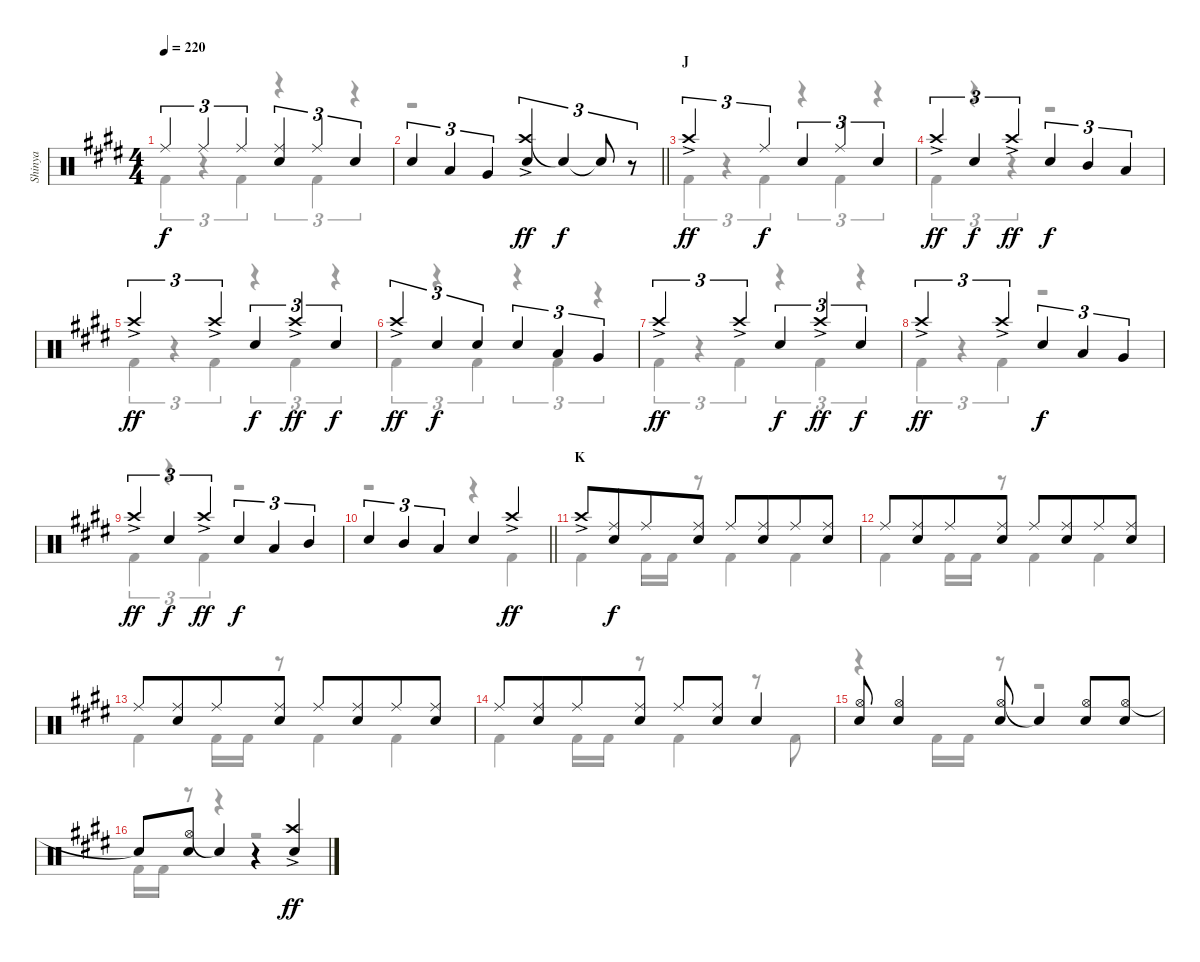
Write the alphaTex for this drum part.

\track ("Shinya" "Shinya") {instrument percussion}
\staff {score}
\articulation defaults
\voice
\ts (4 4)
\tempo 220
\clef neutral
\ks c#minor "Ride (middle)".4{tu (3 2) dy f} "Ride (middle)".4{tu (3 2)} "Ride (middle)".4{tu (3 2)}
("Ride (middle)" "Snare (hit) 2").4{tu (3 2)} "Ride (middle)".4{tu (3 2)} "Snare (hit) 2".4{tu (3 2)} |
\barLineRight lightlight "Snare (hit) 2".4{tu (3 2)} "Low Tom (hit)".4{tu (3 2)} "Very Low Tom (hit)".4{tu (3 2)}
("Crash high (hit)"{ac} "Snare (hit) 2").4{tu (3 2) dy ff} "Snare (hit)"{t}.4{tu (3 2) dy f} "Snare (hit)"{t}.8{tu (3 2)} r.8{tu (3 2)} |
\section ("" "J")
"Crash high (hit)"{ac}.2{tu (3 2) dy ff} "Ride (middle)".4{tu (3 2) dy f} "Snare (hit) 2".4{tu (3 2)} "Ride (middle)".4{tu (3 2)} "Snare (hit) 2".4{tu (3 2)} |
"Crash high (hit)"{ac}.4{tu (3 2) dy ff} "Snare (hit) 2".4{tu (3 2) dy f} "Crash high (hit)"{ac}.4{tu (3 2) dy ff} "Snare (hit) 2".4{tu (3 2) dy f} "Mid Tom (hit)".4{tu (3 2)} "Low Tom (hit)".4{tu (3 2)} |
"Crash high (hit)"{ac}.2{tu (3 2) dy ff} "Crash high (hit)"{ac}.4{tu (3 2)} "Snare (hit) 2".4{tu (3 2) dy f} "Crash high (hit)"{ac}.4{tu (3 2) dy ff} "Snare (hit) 2".4{tu (3 2) dy f} |
"Crash high (hit)"{ac}.4{tu (3 2) dy ff} "Snare (hit) 2".4{tu (3 2) dy f} "Snare (hit) 2".4{tu (3 2)} "Snare (hit) 2".4{tu (3 2)} "Low Tom (hit)".4{tu (3 2)} "Very Low Tom (hit)".4{tu (3 2)} |
"Crash high (hit)"{ac}.2{tu (3 2) dy ff} "Crash high (hit)"{ac}.4{tu (3 2)} "Snare (hit) 2".4{tu (3 2) dy f} "Crash high (hit)"{ac}.4{tu (3 2) dy ff} "Snare (hit) 2".4{tu (3 2) dy f} |
"Crash high (hit)"{ac}.2{tu (3 2) dy ff} "Crash high (hit)"{ac}.4{tu (3 2)} "Snare (hit) 2".4{tu (3 2) dy f} "Low Tom (hit)".4{tu (3 2)} "Very Low Tom (hit)".4{tu (3 2)} |
"Crash high (hit)"{ac}.4{tu (3 2) dy ff} "Snare (hit) 2".4{tu (3 2) dy f} "Crash high (hit)"{ac}.4{tu (3 2) dy ff} "Snare (hit) 2".4{tu (3 2) dy f} "Low Tom (hit)".4{tu (3 2)} "Mid Tom (hit)".4{tu (3 2)} |
\barLineRight lightlight "Snare (hit) 2".4{tu (3 2)} "Mid Tom (hit)".4{tu (3 2)} "Low Tom (hit)".4{tu (3 2)} "Snare (hit) 2".4 "Crash high (hit)"{ac}.4{dy ff}
|
\section ("" "K")
"Crash high (hit)"{ac}.8 ("Ride (middle)" "Snare (hit) 2").8{dy f beam merge} "Ride (middle)".8 ("Ride (middle)" "Snare (hit) 2").8 "Ride (middle)".8 ("Ride (middle)" "Snare (hit) 2").8{beam merge} "Ride (middle)".8 ("Ride (middle)" "Snare (hit) 2").8 |
"Ride (middle)".8 ("Ride (middle)" "Snare (hit) 2").8{beam merge} "Ride (middle)".8 ("Ride (middle)" "Snare (hit) 2").8 "Ride (middle)".8 ("Ride (middle)" "Snare (hit) 2").8{beam merge} "Ride (middle)".8 ("Ride (middle)" "Snare (hit) 2").8 |
"Ride (middle)".8 ("Ride (middle)" "Snare (hit) 2").8{beam merge} "Ride (middle)".8 ("Ride (middle)" "Snare (hit) 2").8 "Ride (middle)".8 ("Ride (middle)" "Snare (hit) 2").8{beam merge} "Ride (middle)".8 ("Ride (middle)" "Snare (hit) 2").8 |
"Ride (middle)".8 ("Ride (middle)" "Snare (hit) 2").8{beam merge} "Ride (middle)".8 ("Ride (middle)" "Snare (hit) 2").8 "Ride (middle)".8 ("Ride (middle)" "Snare (hit) 2").8 "Snare (hit) 2".4 |
("Hi-Hat (open)" "Snare (hit) 2").8 ("Hi-Hat (open)" "Snare (hit) 2").4 ("Hi-Hat (open)" "Snare (hit) 2").8 "Snare (hit)"{t}.4 ("Hi-Hat (open)" "Snare (hit) 2").8 ("Hi-Hat (open)" "Snare (hit) 2").8 |
"Snare (hit)"{t}.8 ("Hi-Hat (open)" "Snare (hit) 2").8 "Snare (hit)"{t}.4 r.4 ("Crash high (hit)"{ac} "Snare (hit) 2").4{dy ff}
\voice
\clef neutral
\ottava regular
\simile none
\ks c#minor "Kick (hit) 2".4{tu (3 2) dy f}
r.4{tu (3 2)} "Kick (hit) 2".4{tu (3 2)} r.4{tu (3 2)} "Kick (hit) 2".4{tu (3 2)} r.4{tu (3 2)} |
\barLineRight lightlight
r.1 |
"Kick (hit) 2".4{tu (3 2)} r.4{tu (3 2)} "Kick (hit) 2".4{tu (3 2)} r.4{tu (3 2)} "Kick (hit) 2".4{tu (3 2)} r.4{tu (3 2)} |
"Kick (hit) 2".4{tu (3 2)} r.4{tu (3 2)} r.4{tu (3 2)} r.2 |
"Kick (hit) 2".4{tu (3 2)} r.4{tu (3 2)} "Kick (hit) 2".4{tu (3 2)} r.4{tu (3 2)} "Kick (hit) 2".4{tu (3 2)} r.4{tu (3 2)} |
"Kick (hit) 2".4{tu (3 2)} r.4{tu (3 2)} "Kick (hit) 2".4{tu (3 2)} r.4{tu (3 2)} "Kick (hit) 2".4{tu (3 2)} r.4{tu (3 2)} |
"Kick (hit) 2".4{tu (3 2)} r.4{tu (3 2)} "Kick (hit) 2".4{tu (3 2)} r.4{tu (3 2)} "Kick (hit) 2".4{tu (3 2)} r.4{tu (3 2)} |
"Kick (hit) 2".4{tu (3 2)} r.4{tu (3 2)} "Kick (hit) 2".4{tu (3 2)} r.2 |
"Kick (hit) 2".4{tu (3 2)} r.4{tu (3 2)} "Kick (hit) 2".4{tu (3 2)} r.2 |
\barLineRight lightlight
r.2 r.4 "Kick (hit) 2".4 |
"Kick (hit) 2".4 "Kick (hit) 2".16 "Kick (hit) 2".16 r.8 "Kick (hit) 2".4 "Kick (hit) 2".4 |
"Kick (hit) 2".4 "Kick (hit) 2".16 "Kick (hit) 2".16 r.8 "Kick (hit) 2".4 "Kick (hit) 2".4 |
"Kick (hit) 2".4 "Kick (hit) 2".16 "Kick (hit) 2".16 r.8 "Kick (hit) 2".4 "Kick (hit) 2".4 |
"Kick (hit) 2".4 "Kick (hit) 2".16 "Kick (hit) 2".16 r.8 "Kick (hit) 2".4 r.8 "Kick (hit) 2".8 |
r.4 "Kick (hit) 2".16 "Kick (hit) 2".16 r.8 r.2 |
"Kick (hit) 2".16 "Kick (hit) 2".16 r.8 r.4 r.2
